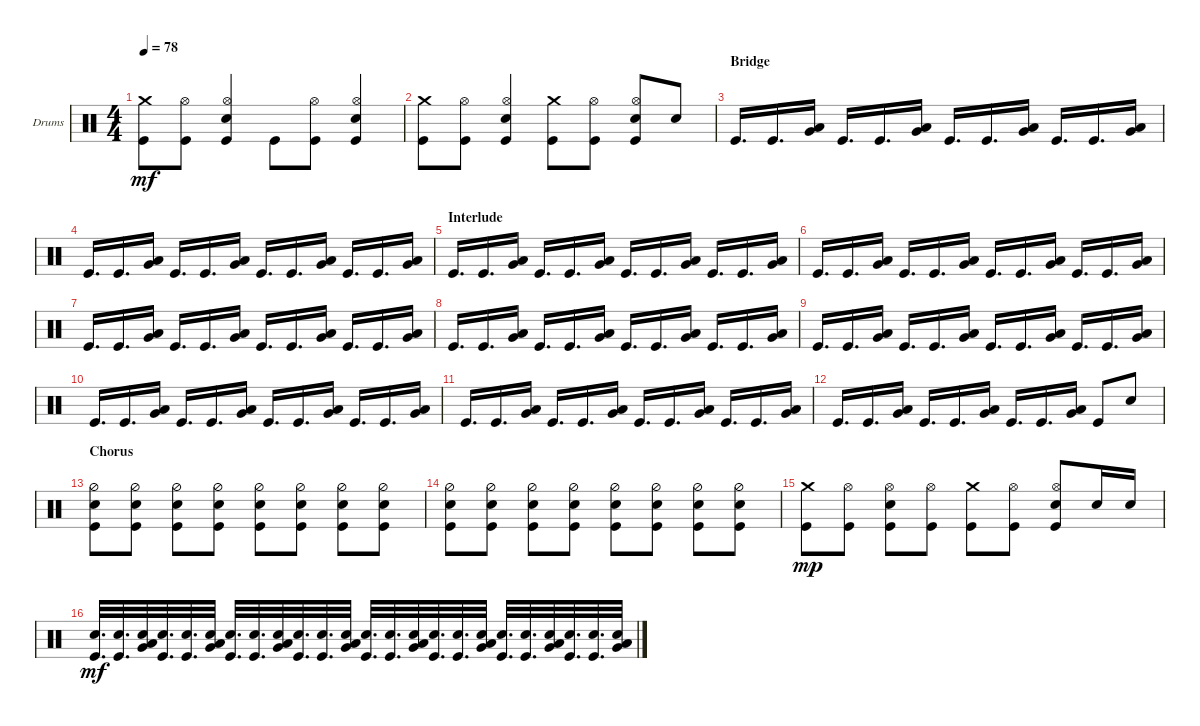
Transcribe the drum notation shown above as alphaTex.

\defaultSystemsLayout 4
\bracketExtendMode groupsimilarinstruments
\firstSystemTrackNameOrientation horizontal
\otherSystemsTrackNameOrientation horizontal
\track ("Drumkit" "Drums") {instrument percussion}
\staff {score}
\articulation defaults
\ts (4 4)
\tempo 78
\clef neutral
\ks c
("Crash medium (hit)" "Kick (hit)").8{dy mf} ("Kick (hit)" "Hi-Hat (open)").8 ("Hi-Hat (open)" "Kick (hit)" "Snare (hit) 2").4 "Kick (hit)".8 ("Kick (hit)" "Hi-Hat (open)").8 ("Hi-Hat (open)" "Kick (hit)" "Snare (hit) 2").4 |
("Crash medium (hit)" "Kick (hit)").8 ("Kick (hit)" "Hi-Hat (open)").8 ("Hi-Hat (open)" "Kick (hit)" "Snare (hit) 2").4 ("Crash medium (hit)" "Kick (hit)").8 ("Kick (hit)" "Hi-Hat (open)").8 ("Hi-Hat (open)" "Kick (hit)" "Snare (hit) 2").8 "Snare (hit) 2".8 |
\section ("" "Bridge")
"Kick (hit)".16{d} "Kick (hit)".16{d} ("Very Low Tom (hit)" "Low Tom (hit)").16 "Kick (hit)".16{d} "Kick (hit)".16{d} ("Low Tom (hit)" "Very Low Tom (hit)").16 "Kick (hit)".16{d} "Kick (hit)".16{d} ("Very Low Tom (hit)" "Low Tom (hit)").16 "Kick (hit)".16{d} "Kick (hit)".16{d} ("Low Tom (hit)" "Very Low Tom (hit)").16 |
"Kick (hit)".16{d} "Kick (hit)".16{d} ("Very Low Tom (hit)" "Low Tom (hit)").16 "Kick (hit)".16{d} "Kick (hit)".16{d} ("Low Tom (hit)" "Very Low Tom (hit)").16 "Kick (hit)".16{d} "Kick (hit)".16{d} ("Very Low Tom (hit)" "Low Tom (hit)").16 "Kick (hit)".16{d} "Kick (hit)".16{d} ("Low Tom (hit)" "Very Low Tom (hit)").16 |
\section ("" "Interlude")
"Kick (hit)".16{d} "Kick (hit)".16{d} ("Very Low Tom (hit)" "Low Tom (hit)").16 "Kick (hit)".16{d} "Kick (hit)".16{d} ("Low Tom (hit)" "Very Low Tom (hit)").16 "Kick (hit)".16{d} "Kick (hit)".16{d} ("Very Low Tom (hit)" "Low Tom (hit)").16 "Kick (hit)".16{d} "Kick (hit)".16{d} ("Low Tom (hit)" "Very Low Tom (hit)").16 |
"Kick (hit)".16{d} "Kick (hit)".16{d} ("Very Low Tom (hit)" "Low Tom (hit)").16 "Kick (hit)".16{d} "Kick (hit)".16{d} ("Low Tom (hit)" "Very Low Tom (hit)").16 "Kick (hit)".16{d} "Kick (hit)".16{d} ("Very Low Tom (hit)" "Low Tom (hit)").16 "Kick (hit)".16{d} "Kick (hit)".16{d} ("Low Tom (hit)" "Very Low Tom (hit)").16 |
"Kick (hit)".16{d} "Kick (hit)".16{d} ("Very Low Tom (hit)" "Low Tom (hit)").16 "Kick (hit)".16{d} "Kick (hit)".16{d} ("Low Tom (hit)" "Very Low Tom (hit)").16 "Kick (hit)".16{d} "Kick (hit)".16{d} ("Very Low Tom (hit)" "Low Tom (hit)").16 "Kick (hit)".16{d} "Kick (hit)".16{d} ("Low Tom (hit)" "Very Low Tom (hit)").16 |
"Kick (hit)".16{d} "Kick (hit)".16{d} ("Very Low Tom (hit)" "Low Tom (hit)").16 "Kick (hit)".16{d} "Kick (hit)".16{d} ("Low Tom (hit)" "Very Low Tom (hit)").16 "Kick (hit)".16{d} "Kick (hit)".16{d} ("Very Low Tom (hit)" "Low Tom (hit)").16 "Kick (hit)".16{d} "Kick (hit)".16{d} ("Low Tom (hit)" "Very Low Tom (hit)").16 |
"Kick (hit)".16{d} "Kick (hit)".16{d} ("Very Low Tom (hit)" "Low Tom (hit)").16 "Kick (hit)".16{d} "Kick (hit)".16{d} ("Low Tom (hit)" "Very Low Tom (hit)").16 "Kick (hit)".16{d} "Kick (hit)".16{d} ("Very Low Tom (hit)" "Low Tom (hit)").16 "Kick (hit)".16{d} "Kick (hit)".16{d} ("Low Tom (hit)" "Very Low Tom (hit)").16 |
"Kick (hit)".16{d} "Kick (hit)".16{d} ("Very Low Tom (hit)" "Low Tom (hit)").16 "Kick (hit)".16{d} "Kick (hit)".16{d} ("Low Tom (hit)" "Very Low Tom (hit)").16 "Kick (hit)".16{d} "Kick (hit)".16{d} ("Very Low Tom (hit)" "Low Tom (hit)").16 "Kick (hit)".16{d} "Kick (hit)".16{d} ("Low Tom (hit)" "Very Low Tom (hit)").16 |
"Kick (hit)".16{d} "Kick (hit)".16{d} ("Very Low Tom (hit)" "Low Tom (hit)").16 "Kick (hit)".16{d} "Kick (hit)".16{d} ("Low Tom (hit)" "Very Low Tom (hit)").16 "Kick (hit)".16{d} "Kick (hit)".16{d} ("Very Low Tom (hit)" "Low Tom (hit)").16 "Kick (hit)".16{d} "Kick (hit)".16{d} ("Low Tom (hit)" "Very Low Tom (hit)").16 |
"Kick (hit)".16{d} "Kick (hit)".16{d} ("Very Low Tom (hit)" "Low Tom (hit)").16 "Kick (hit)".16{d} "Kick (hit)".16{d} ("Low Tom (hit)" "Very Low Tom (hit)").16 "Kick (hit)".16{d} "Kick (hit)".16{d} ("Very Low Tom (hit)" "Low Tom (hit)").16 "Kick (hit)".8 "Snare (hit) 2".8 |
\section ("" "Chorus")
("Snare (hit) 2" "Kick (hit)" "Hi-Hat (half)").8 ("Snare (hit) 2" "Kick (hit)" "Hi-Hat (half)").8 ("Snare (hit) 2" "Kick (hit)" "Hi-Hat (half)").8 ("Snare (hit) 2" "Kick (hit)" "Hi-Hat (half)").8 ("Snare (hit) 2" "Kick (hit)" "Hi-Hat (half)").8 ("Snare (hit) 2" "Kick (hit)" "Hi-Hat (half)").8 ("Snare (hit) 2" "Kick (hit)" "Hi-Hat (half)").8 ("Snare (hit) 2" "Kick (hit)" "Hi-Hat (half)").8 |
("Snare (hit) 2" "Kick (hit)" "Hi-Hat (half)").8 ("Snare (hit) 2" "Kick (hit)" "Hi-Hat (half)").8 ("Snare (hit) 2" "Kick (hit)" "Hi-Hat (half)").8 ("Snare (hit) 2" "Kick (hit)" "Hi-Hat (half)").8 ("Snare (hit) 2" "Kick (hit)" "Hi-Hat (half)").8 ("Snare (hit) 2" "Kick (hit)" "Hi-Hat (half)").8 ("Snare (hit) 2" "Kick (hit)" "Hi-Hat (half)").8 ("Snare (hit) 2" "Kick (hit)" "Hi-Hat (half)").8 |
("Crash medium (hit)" "Kick (hit)").8{dy mp} ("Hi-Hat (open)" "Kick (hit)").8 ("Hi-Hat (open)" "Kick (hit)" "Snare (hit) 2").8 ("Hi-Hat (open)" "Kick (hit)").8 ("Crash medium (hit)" "Kick (hit)").8 ("Hi-Hat (open)" "Kick (hit)").8 ("Hi-Hat (open)" "Kick (hit)" "Snare (hit) 2").8 "Snare (hit) 2".16 "Snare (hit) 2".16 |
("Kick (hit)" "Snare (hit) 2").32{d dy mf} ("Kick (hit)" "Snare (hit) 2").32{d} ("Very Low Tom (hit)" "Low Tom (hit)" "Snare (hit) 2").32 ("Kick (hit)" "Snare (hit) 2").32{d} ("Kick (hit)" "Snare (hit) 2").32{d} ("Low Tom (hit)" "Very Low Tom (hit)" "Snare (hit) 2").32 ("Kick (hit)" "Snare (hit) 2").32{d} ("Kick (hit)" "Snare (hit) 2").32{d} ("Very Low Tom (hit)" "Low Tom (hit)" "Snare (hit) 2").32 ("Kick (hit)" "Snare (hit) 2").32{d} ("Kick (hit)" "Snare (hit) 2").32{d} ("Low Tom (hit)" "Very Low Tom (hit)" "Snare (hit) 2").32 ("Kick (hit)" "Snare (hit) 2").32{d} ("Kick (hit)" "Snare (hit) 2").32{d} ("Very Low Tom (hit)" "Low Tom (hit)" "Snare (hit) 2").32 ("Kick (hit)" "Snare (hit) 2").32{d} ("Kick (hit)" "Snare (hit) 2").32{d} ("Low Tom (hit)" "Very Low Tom (hit)" "Snare (hit) 2").32 ("Kick (hit)" "Snare (hit) 2").32{d} ("Kick (hit)" "Snare (hit) 2").32{d} ("Very Low Tom (hit)" "Low Tom (hit)" "Snare (hit) 2").32 ("Kick (hit)" "Snare (hit) 2").32{d} ("Kick (hit)" "Snare (hit) 2").32{d} ("Low Tom (hit)" "Very Low Tom (hit)" "Snare (hit) 2").32
